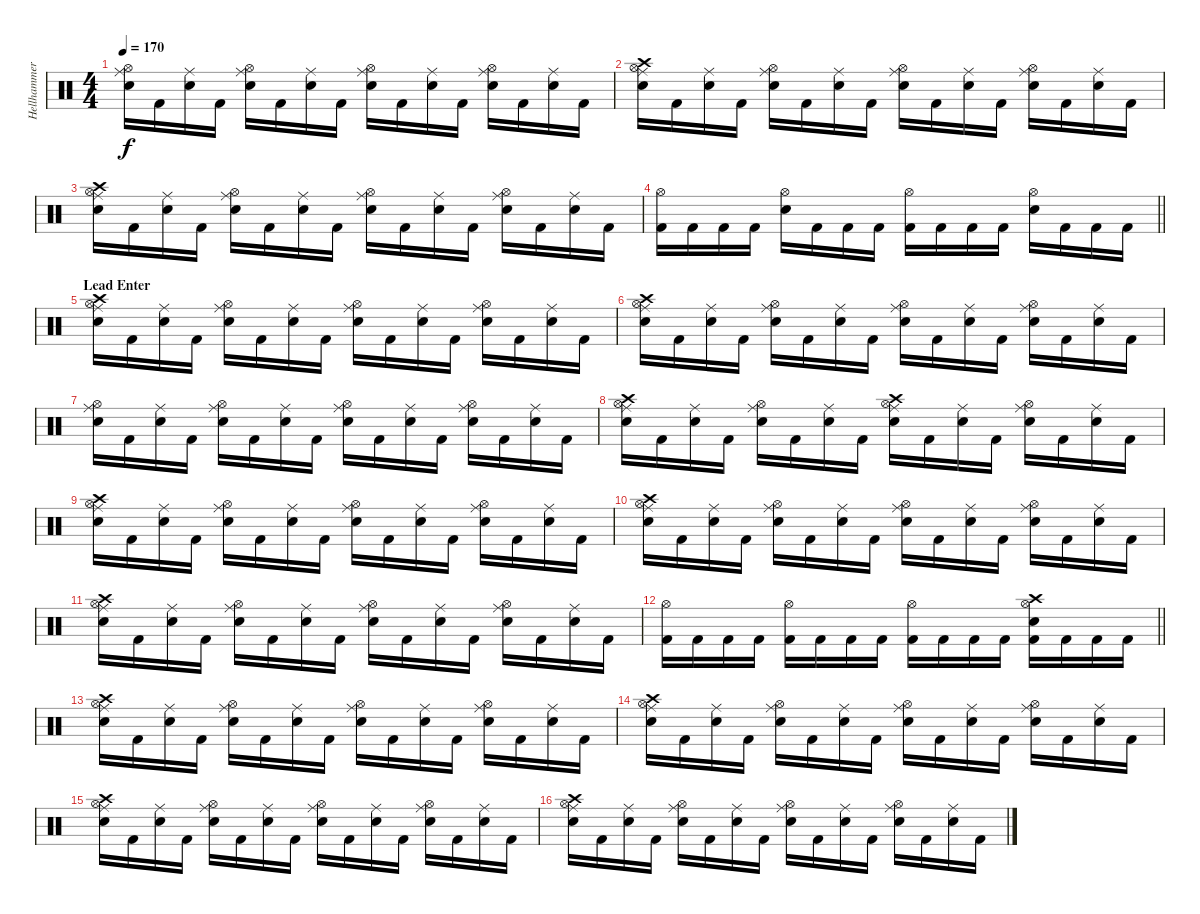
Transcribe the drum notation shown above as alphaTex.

\track ("Hellhammer" "Hellhammer") {instrument percussion}
\staff {score}
\articulation defaults
\ts (4 4)
\tempo 170
\clef neutral
\ks c
("Hi-Hat (open)" "Ride (middle)" "Electric Snare (hit)").16{dy f} "Kick (hit) 2".16 ("Ride (middle)" "Electric Snare (hit)").16 "Kick (hit) 2".16 ("Hi-Hat (open)" "Ride (middle)" "Electric Snare (hit)").16 "Kick (hit) 2".16 ("Ride (middle)" "Electric Snare (hit)").16 "Kick (hit) 2".16 ("Hi-Hat (open)" "Ride (middle)" "Electric Snare (hit)").16 "Kick (hit) 2".16 ("Ride (middle)" "Electric Snare (hit)").16 "Kick (hit) 2".16 ("Hi-Hat (open)" "Ride (middle)" "Electric Snare (hit)").16 "Kick (hit) 2".16 ("Ride (middle)" "Electric Snare (hit)").16 "Kick (hit) 2".16 |
("Crash high (hit)" "Hi-Hat (open)" "Ride (middle)" "Electric Snare (hit)").16 "Kick (hit) 2".16 ("Ride (middle)" "Electric Snare (hit)").16 "Kick (hit) 2".16 ("Hi-Hat (open)" "Ride (middle)" "Electric Snare (hit)").16 "Kick (hit) 2".16 ("Ride (middle)" "Electric Snare (hit)").16 "Kick (hit) 2".16 ("Hi-Hat (open)" "Ride (middle)" "Electric Snare (hit)").16 "Kick (hit) 2".16 ("Ride (middle)" "Electric Snare (hit)").16 "Kick (hit) 2".16 ("Hi-Hat (open)" "Ride (middle)" "Electric Snare (hit)").16 "Kick (hit) 2".16 ("Ride (middle)" "Electric Snare (hit)").16 "Kick (hit) 2".16 |
("Crash high (hit)" "Hi-Hat (open)" "Ride (middle)" "Electric Snare (hit)").16 "Kick (hit) 2".16 ("Ride (middle)" "Electric Snare (hit)").16 "Kick (hit) 2".16 ("Hi-Hat (open)" "Ride (middle)" "Electric Snare (hit)").16 "Kick (hit) 2".16 ("Ride (middle)" "Electric Snare (hit)").16 "Kick (hit) 2".16 ("Hi-Hat (open)" "Ride (middle)" "Electric Snare (hit)").16 "Kick (hit) 2".16 ("Ride (middle)" "Electric Snare (hit)").16 "Kick (hit) 2".16 ("Hi-Hat (open)" "Ride (middle)" "Electric Snare (hit)").16 "Kick (hit) 2".16 ("Ride (middle)" "Electric Snare (hit)").16 "Kick (hit) 2".16 |
\barLineRight lightlight
("Hi-Hat (open)" "Kick (hit) 2").16 "Kick (hit) 2".16 "Kick (hit) 2".16 "Kick (hit) 2".16 ("Hi-Hat (open)" "Snare (hit) 2").16 "Kick (hit) 2".16 "Kick (hit) 2".16 "Kick (hit) 2".16 ("Hi-Hat (open)" "Kick (hit) 2").16 "Kick (hit) 2".16 "Kick (hit) 2".16 "Kick (hit) 2".16 ("Hi-Hat (open)" "Snare (hit) 2").16 "Kick (hit) 2".16 "Kick (hit) 2".16 "Kick (hit) 2".16 |
\section ("" "Lead Enter")
("Crash high (hit)" "Hi-Hat (open)" "Ride (middle)" "Electric Snare (hit)").16 "Kick (hit) 2".16 ("Ride (middle)" "Electric Snare (hit)").16 "Kick (hit) 2".16 ("Hi-Hat (open)" "Ride (middle)" "Electric Snare (hit)").16 "Kick (hit) 2".16 ("Ride (middle)" "Electric Snare (hit)").16 "Kick (hit) 2".16 ("Hi-Hat (open)" "Ride (middle)" "Electric Snare (hit)").16 "Kick (hit) 2".16 ("Ride (middle)" "Electric Snare (hit)").16 "Kick (hit) 2".16 ("Hi-Hat (open)" "Ride (middle)" "Electric Snare (hit)").16 "Kick (hit) 2".16 ("Ride (middle)" "Electric Snare (hit)").16 "Kick (hit) 2".16 |
("Crash high (hit)" "Hi-Hat (open)" "Ride (middle)" "Electric Snare (hit)").16 "Kick (hit) 2".16 ("Ride (middle)" "Electric Snare (hit)").16 "Kick (hit) 2".16 ("Hi-Hat (open)" "Ride (middle)" "Electric Snare (hit)").16 "Kick (hit) 2".16 ("Ride (middle)" "Electric Snare (hit)").16 "Kick (hit) 2".16 ("Hi-Hat (open)" "Ride (middle)" "Electric Snare (hit)").16 "Kick (hit) 2".16 ("Ride (middle)" "Electric Snare (hit)").16 "Kick (hit) 2".16 ("Hi-Hat (open)" "Ride (middle)" "Electric Snare (hit)").16 "Kick (hit) 2".16 ("Ride (middle)" "Electric Snare (hit)").16 "Kick (hit) 2".16 |
("Hi-Hat (open)" "Ride (middle)" "Electric Snare (hit)").16 "Kick (hit) 2".16 ("Ride (middle)" "Electric Snare (hit)").16 "Kick (hit) 2".16 ("Hi-Hat (open)" "Ride (middle)" "Electric Snare (hit)").16 "Kick (hit) 2".16 ("Ride (middle)" "Electric Snare (hit)").16 "Kick (hit) 2".16 ("Hi-Hat (open)" "Ride (middle)" "Electric Snare (hit)").16 "Kick (hit) 2".16 ("Ride (middle)" "Electric Snare (hit)").16 "Kick (hit) 2".16 ("Hi-Hat (open)" "Ride (middle)" "Electric Snare (hit)").16 "Kick (hit) 2".16 ("Ride (middle)" "Electric Snare (hit)").16 "Kick (hit) 2".16 |
("Crash high (hit)" "Hi-Hat (open)" "Ride (middle)" "Electric Snare (hit)").16 "Kick (hit) 2".16 ("Ride (middle)" "Electric Snare (hit)").16 "Kick (hit) 2".16 ("Hi-Hat (open)" "Ride (middle)" "Electric Snare (hit)").16 "Kick (hit) 2".16 ("Ride (middle)" "Electric Snare (hit)").16 "Kick (hit) 2".16 ("Crash high (hit)" "Hi-Hat (open)" "Ride (middle)" "Electric Snare (hit)").16 "Kick (hit) 2".16 ("Ride (middle)" "Electric Snare (hit)").16 "Kick (hit) 2".16 ("Hi-Hat (open)" "Ride (middle)" "Electric Snare (hit)").16 "Kick (hit) 2".16 ("Ride (middle)" "Electric Snare (hit)").16 "Kick (hit) 2".16 |
("Crash high (hit)" "Hi-Hat (open)" "Ride (middle)" "Electric Snare (hit)").16 "Kick (hit) 2".16 ("Ride (middle)" "Electric Snare (hit)").16 "Kick (hit) 2".16 ("Hi-Hat (open)" "Ride (middle)" "Electric Snare (hit)").16 "Kick (hit) 2".16 ("Ride (middle)" "Electric Snare (hit)").16 "Kick (hit) 2".16 ("Hi-Hat (open)" "Ride (middle)" "Electric Snare (hit)").16 "Kick (hit) 2".16 ("Ride (middle)" "Electric Snare (hit)").16 "Kick (hit) 2".16 ("Hi-Hat (open)" "Ride (middle)" "Electric Snare (hit)").16 "Kick (hit) 2".16 ("Ride (middle)" "Electric Snare (hit)").16 "Kick (hit) 2".16 |
("Crash high (hit)" "Hi-Hat (open)" "Ride (middle)" "Electric Snare (hit)").16 "Kick (hit) 2".16 ("Ride (middle)" "Electric Snare (hit)").16 "Kick (hit) 2".16 ("Hi-Hat (open)" "Ride (middle)" "Electric Snare (hit)").16 "Kick (hit) 2".16 ("Ride (middle)" "Electric Snare (hit)").16 "Kick (hit) 2".16 ("Hi-Hat (open)" "Ride (middle)" "Electric Snare (hit)").16 "Kick (hit) 2".16 ("Ride (middle)" "Electric Snare (hit)").16 "Kick (hit) 2".16 ("Hi-Hat (open)" "Ride (middle)" "Electric Snare (hit)").16 "Kick (hit) 2".16 ("Ride (middle)" "Electric Snare (hit)").16 "Kick (hit) 2".16 |
("Crash high (hit)" "Hi-Hat (open)" "Ride (middle)" "Electric Snare (hit)").16 "Kick (hit) 2".16 ("Ride (middle)" "Electric Snare (hit)").16 "Kick (hit) 2".16 ("Hi-Hat (open)" "Ride (middle)" "Electric Snare (hit)").16 "Kick (hit) 2".16 ("Ride (middle)" "Electric Snare (hit)").16 "Kick (hit) 2".16 ("Hi-Hat (open)" "Ride (middle)" "Electric Snare (hit)").16 "Kick (hit) 2".16 ("Ride (middle)" "Electric Snare (hit)").16 "Kick (hit) 2".16 ("Hi-Hat (open)" "Ride (middle)" "Electric Snare (hit)").16 "Kick (hit) 2".16 ("Ride (middle)" "Electric Snare (hit)").16 "Kick (hit) 2".16 |
\barLineRight lightlight
("Hi-Hat (open)" "Kick (hit) 2").16 "Kick (hit) 2".16 "Kick (hit) 2".16 "Kick (hit) 2".16 ("Hi-Hat (open)" "Kick (hit) 2").16 "Kick (hit) 2".16 "Kick (hit) 2".16 "Kick (hit) 2".16 ("Hi-Hat (open)" "Kick (hit) 2").16 "Kick (hit) 2".16 "Kick (hit) 2".16 "Kick (hit) 2".16 ("Hi-Hat (open)" "Crash high (hit)" "Snare (hit) 2" "Kick (hit) 2").16 "Kick (hit) 2".16 "Kick (hit) 2".16 "Kick (hit) 2".16 |
("Crash high (hit)" "Hi-Hat (open)" "Ride (middle)" "Electric Snare (hit)").16 "Kick (hit) 2".16 ("Ride (middle)" "Electric Snare (hit)").16 "Kick (hit) 2".16 ("Hi-Hat (open)" "Ride (middle)" "Electric Snare (hit)").16 "Kick (hit) 2".16 ("Ride (middle)" "Electric Snare (hit)").16 "Kick (hit) 2".16 ("Hi-Hat (open)" "Ride (middle)" "Electric Snare (hit)").16 "Kick (hit) 2".16 ("Ride (middle)" "Electric Snare (hit)").16 "Kick (hit) 2".16 ("Hi-Hat (open)" "Ride (middle)" "Electric Snare (hit)").16 "Kick (hit) 2".16 ("Ride (middle)" "Electric Snare (hit)").16 "Kick (hit) 2".16 |
("Crash high (hit)" "Hi-Hat (open)" "Ride (middle)" "Electric Snare (hit)").16 "Kick (hit) 2".16 ("Ride (middle)" "Electric Snare (hit)").16 "Kick (hit) 2".16 ("Hi-Hat (open)" "Ride (middle)" "Electric Snare (hit)").16 "Kick (hit) 2".16 ("Ride (middle)" "Electric Snare (hit)").16 "Kick (hit) 2".16 ("Hi-Hat (open)" "Ride (middle)" "Electric Snare (hit)").16 "Kick (hit) 2".16 ("Ride (middle)" "Electric Snare (hit)").16 "Kick (hit) 2".16 ("Hi-Hat (open)" "Ride (middle)" "Electric Snare (hit)").16 "Kick (hit) 2".16 ("Ride (middle)" "Electric Snare (hit)").16 "Kick (hit) 2".16 |
("Crash high (hit)" "Hi-Hat (open)" "Ride (middle)" "Electric Snare (hit)").16 "Kick (hit) 2".16 ("Ride (middle)" "Electric Snare (hit)").16 "Kick (hit) 2".16 ("Hi-Hat (open)" "Ride (middle)" "Electric Snare (hit)").16 "Kick (hit) 2".16 ("Ride (middle)" "Electric Snare (hit)").16 "Kick (hit) 2".16 ("Hi-Hat (open)" "Ride (middle)" "Electric Snare (hit)").16 "Kick (hit) 2".16 ("Ride (middle)" "Electric Snare (hit)").16 "Kick (hit) 2".16 ("Hi-Hat (open)" "Ride (middle)" "Electric Snare (hit)").16 "Kick (hit) 2".16 ("Ride (middle)" "Electric Snare (hit)").16 "Kick (hit) 2".16 |
("Crash high (hit)" "Hi-Hat (open)" "Ride (middle)" "Electric Snare (hit)").16 "Kick (hit) 2".16 ("Ride (middle)" "Electric Snare (hit)").16 "Kick (hit) 2".16 ("Hi-Hat (open)" "Ride (middle)" "Electric Snare (hit)").16 "Kick (hit) 2".16 ("Ride (middle)" "Electric Snare (hit)").16 "Kick (hit) 2".16 ("Hi-Hat (open)" "Ride (middle)" "Electric Snare (hit)").16 "Kick (hit) 2".16 ("Ride (middle)" "Electric Snare (hit)").16 "Kick (hit) 2".16 ("Hi-Hat (open)" "Ride (middle)" "Electric Snare (hit)").16 "Kick (hit) 2".16 ("Ride (middle)" "Electric Snare (hit)").16 "Kick (hit) 2".16
